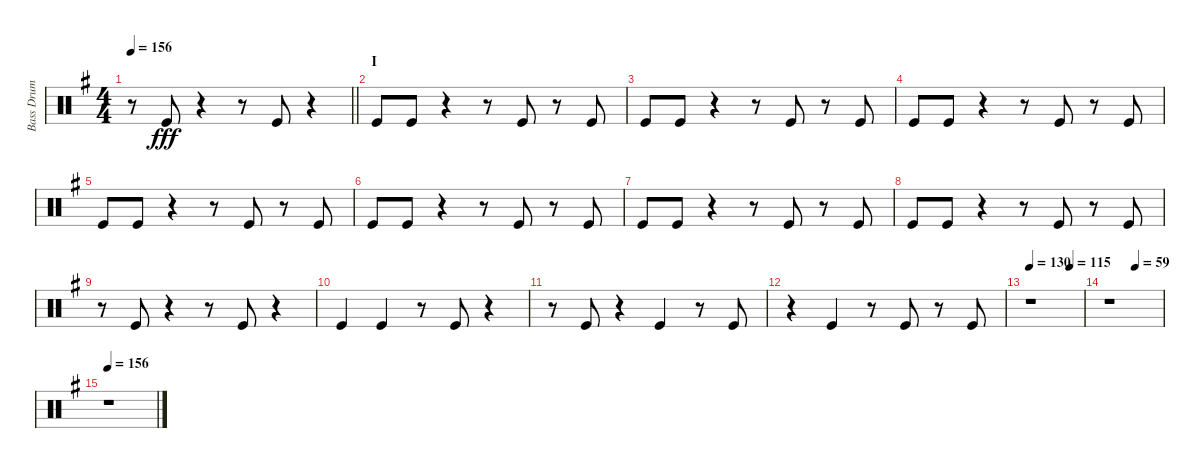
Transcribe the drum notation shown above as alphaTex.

\track ("Bass Drum" "Bass Drum") {instrument percussion}
\staff {score}
\articulation defaults
\ts (4 4)
\tempo 156
\clef neutral
\barLineRight lightlight
\ks g
r.8{dy fff} "Kick (hit)".8 r.4 r.8 "Kick (hit)".8 r.4 |
\section ("" "I")
"Kick (hit)".8 "Kick (hit)".8 r.4 r.8 "Kick (hit)".8 r.8 "Kick (hit)".8 |
"Kick (hit)".8 "Kick (hit)".8 r.4 r.8 "Kick (hit)".8 r.8 "Kick (hit)".8 |
"Kick (hit)".8 "Kick (hit)".8 r.4 r.8 "Kick (hit)".8 r.8 "Kick (hit)".8 |
"Kick (hit)".8 "Kick (hit)".8 r.4 r.8 "Kick (hit)".8 r.8 "Kick (hit)".8 |
"Kick (hit)".8 "Kick (hit)".8 r.4 r.8 "Kick (hit)".8 r.8 "Kick (hit)".8 |
"Kick (hit)".8 "Kick (hit)".8 r.4 r.8 "Kick (hit)".8 r.8 "Kick (hit)".8 |
"Kick (hit)".8 "Kick (hit)".8 r.4 r.8 "Kick (hit)".8 r.8 "Kick (hit)".8 |
r.8 "Kick (hit)".8 r.4 r.8 "Kick (hit)".8 r.4 |
"Kick (hit)".4 "Kick (hit)".4 r.8 "Kick (hit)".8 r.4 |
r.8 "Kick (hit)".8 r.4 "Kick (hit)".4 r.8 "Kick (hit)".8 |
r.4 "Kick (hit)".4 r.8 "Kick (hit)".8 r.8 "Kick (hit)".8 |
\tempo 130
\tempo (115 0.75)
r.1 |
\tempo (59 0.5)
r.1 |
\tempo 156
r.1
